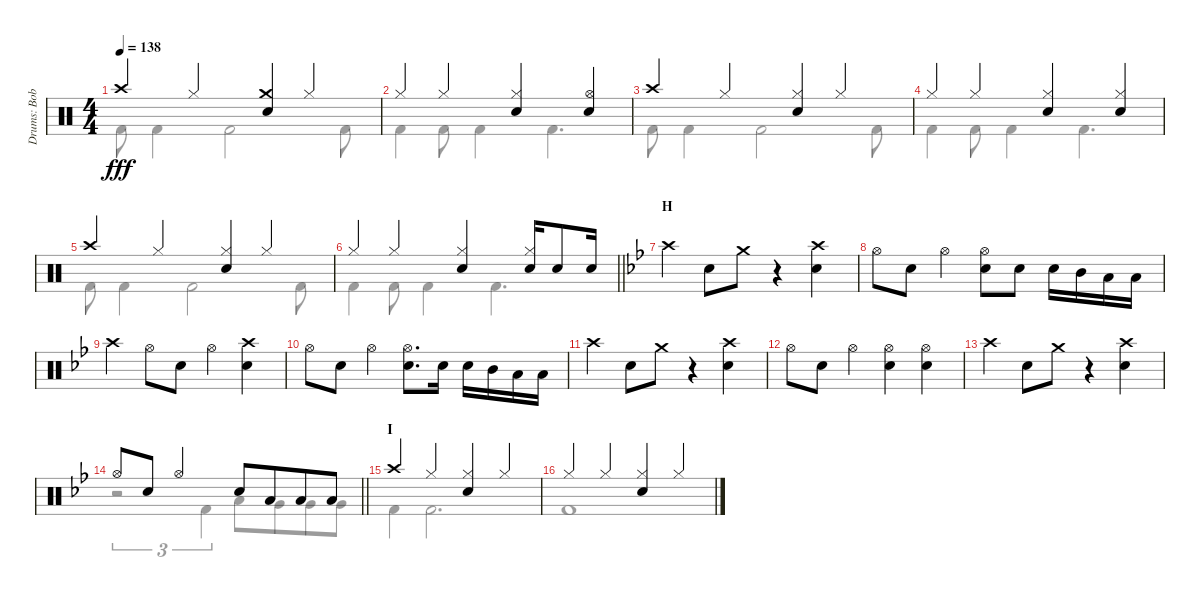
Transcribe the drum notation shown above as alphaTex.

\track ("Drums: Bobby" "Drums: Bob") {instrument percussion}
\staff {score}
\articulation defaults
\voice
\ts (4 4)
\tempo 138
\clef neutral
\ks c "Crash high (hit)".4{dy fff} "Hi-Hat (closed)".4
("Crash medium (hit)" "Snare (hit) 2").4 "Hi-Hat (closed)".4 |
"Hi-Hat (closed)".4 "Hi-Hat (closed)".4 ("Hi-Hat (closed)" "Snare (hit) 2").4 ("Hi-Hat (open)" "Snare (hit) 2").4 |
"Crash high (hit)".4 "Hi-Hat (closed)".4 ("Hi-Hat (closed)" "Snare (hit) 2").4 "Hi-Hat (closed)".4 |
"Hi-Hat (closed)".4 "Hi-Hat (closed)".4 ("Hi-Hat (closed)" "Snare (hit) 2").4 ("Hi-Hat (closed)" "Snare (hit) 2").4 |
"Crash high (hit)".4 "Hi-Hat (closed)".4 ("Hi-Hat (closed)" "Snare (hit) 2").4 "Hi-Hat (closed)".4 |
\barLineRight lightlight "Hi-Hat (closed)".4 "Hi-Hat (closed)".4
("Hi-Hat (closed)" "Snare (hit) 2").4 ("Hi-Hat (closed)" "Snare (hit) 2").16 "Snare (hit) 2".8 "Snare (hit) 2".16 |
\section ("" "H")
\ks bb "Crash high (hit)".4 "Snare (hit) 2".8 "Crash medium (hit)".8
r.4 ("Crash high (hit)" "Snare (hit) 2").4 |
"Hi-Hat (open)".8 "Snare (hit) 2".8 "Hi-Hat (open)".4 ("Hi-Hat (open)" "Snare (hit) 2").8 "Snare (hit) 2".8 "Snare (hit) 2".16 "Mid Tom (hit)".16 "Low Tom (hit)".16 "Low Tom (hit)".16 |
"Crash high (hit)".4 "Hi-Hat (open)".8 "Snare (hit) 2".8 "Hi-Hat (open)".4 ("Crash high (hit)" "Snare (hit) 2").4 |
"Hi-Hat (open)".8 "Snare (hit) 2".8 "Hi-Hat (open)".4 ("Hi-Hat (open)" "Snare (hit) 2").8{d} "Snare (hit) 2".16 "Snare (hit) 2".16 "Mid Tom (hit)".16 "Low Tom (hit)".16 "Low Tom (hit)".16 |
"Crash high (hit)".4 "Snare (hit) 2".8 "Crash medium (hit)".8 r.4 ("Crash high (hit)" "Snare (hit) 2").4 |
"Hi-Hat (open)".8 "Snare (hit) 2".8 "Hi-Hat (open)".4 ("Hi-Hat (open)" "Snare (hit) 2").4 ("Hi-Hat (open)" "Snare (hit) 2").4 |
"Crash high (hit)".4 "Snare (hit) 2".8 "Crash medium (hit)".8 r.4 ("Crash high (hit)" "Snare (hit) 2").4 |
\barLineRight lightlight "Hi-Hat (open)".8 "Snare (hit) 2".8 "Hi-Hat (open)".4 "Snare (hit) 2".8 "Low Tom (hit)".8{beam merge} "Low Tom (hit)".8 "Low Tom (hit)".8
|
\section ("" "I")
"Crash high (hit)".4 "Hi-Hat (closed)".4 ("Hi-Hat (closed)" "Snare (hit) 2").4 "Hi-Hat (closed)".4 |
"Hi-Hat (closed)".4 "Hi-Hat (closed)".4 ("Hi-Hat (closed)" "Snare (hit) 2").4 "Hi-Hat (closed)".4
\voice
\clef neutral
\ottava regular
\simile none
\ks c "Kick (hit) 2".8{dy fff} "Kick (hit) 2".4 "Kick (hit) 2".2 "Kick (hit) 2".8
|
"Kick (hit) 2".4 "Kick (hit) 2".8 "Kick (hit) 2".4 "Kick (hit) 2".4{d} |
"Kick (hit) 2".8 "Kick (hit) 2".4 "Kick (hit) 2".2 "Kick (hit) 2".8 |
"Kick (hit) 2".4 "Kick (hit) 2".8 "Kick (hit) 2".4 "Kick (hit) 2".4{d} |
"Kick (hit) 2".8 "Kick (hit) 2".4 "Kick (hit) 2".2 "Kick (hit) 2".8 |
\barLineRight lightlight "Kick (hit) 2".4 "Kick (hit) 2".8 "Kick (hit) 2".4 "Kick (hit) 2".4{d}
|
\ks bb
|
|
|
|
|
|
|
\barLineRight lightlight
r.2{tu (3 2)} "Kick (hit) 2".4{tu (3 2)} "Low Tom (hit)".8 "Very Low Tom (hit)".8{beam merge} "Very Low Tom (hit)".8 "Very Low Tom (hit)".8 |
"Kick (hit) 2".4 "Kick (hit) 2".2{d} |
"Kick (hit) 2".1
